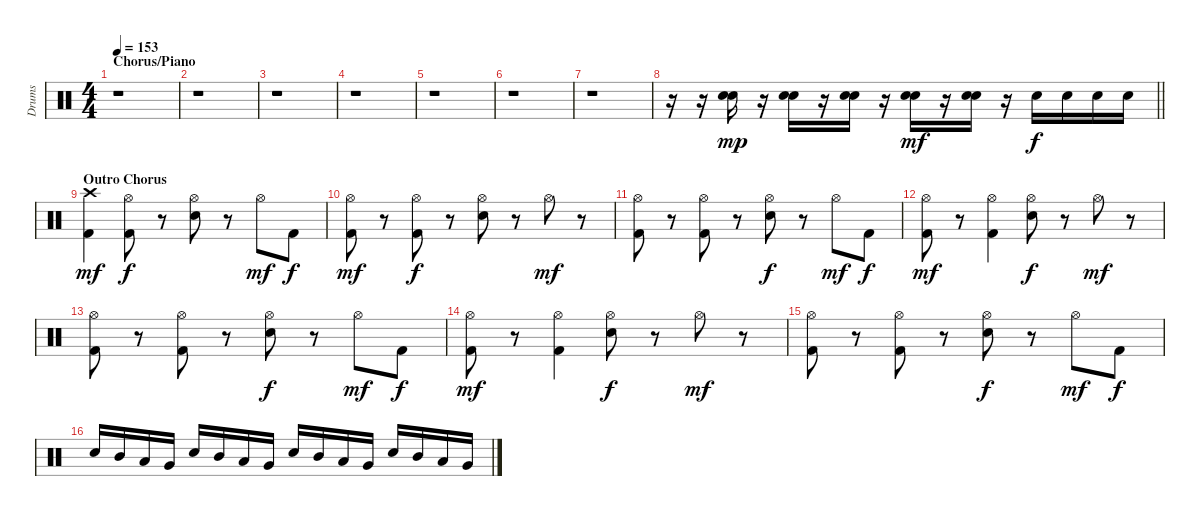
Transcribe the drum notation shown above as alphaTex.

\track ("Drums" "Drums") {instrument percussion}
\staff {score}
\articulation defaults
\ts (4 4)
\section ("" "Chorus/Piano")
\tempo 153
\clef neutral
\ks c
r.1{dy f} |
r.1 |
r.1 |
r.1 |
r.1 |
r.1 |
r.1 |
\barLineRight lightlight
r.16 r.16 ("Electric Snare (hit)" "Snare (hit) 2").16{dy mp} r.16 ("Electric Snare (hit)" "Snare (hit) 2").16 r.16 ("Electric Snare (hit)" "Snare (hit) 2").16 r.16 ("Electric Snare (hit)" "Snare (hit) 2").16{dy mf} r.16 ("Electric Snare (hit)" "Snare (hit) 2").16 r.16 "Electric Snare (hit)".16{dy f} "Electric Snare (hit)".16 "Electric Snare (hit)".16 "Electric Snare (hit)".16 |
\section ("" "Outro Chorus")
("Crash high (hit)" "Kick (hit) 2").4{dy mf} ("Hi-Hat (open)" "Kick (hit) 2").8{dy f} r.8 ("Hi-Hat (open)" "Electric Snare (hit)").8 r.8 "Hi-Hat (open)".8{dy mf} "Kick (hit) 2".8{dy f} |
("Hi-Hat (open)" "Kick (hit) 2").8{dy mf} r.8 ("Hi-Hat (open)" "Kick (hit) 2").8{dy f} r.8 ("Hi-Hat (open)" "Electric Snare (hit)").8 r.8 "Hi-Hat (open)".8{dy mf} r.8 |
("Hi-Hat (open)" "Kick (hit) 2").8 r.8 ("Hi-Hat (open)" "Kick (hit) 2").8 r.8 ("Hi-Hat (open)" "Electric Snare (hit)").8{dy f} r.8 "Hi-Hat (open)".8{dy mf} "Kick (hit) 2".8{dy f} |
("Hi-Hat (open)" "Kick (hit) 2").8{dy mf} r.8 ("Hi-Hat (open)" "Kick (hit) 2").4 ("Hi-Hat (open)" "Electric Snare (hit)").8{dy f} r.8 "Hi-Hat (open)".8{dy mf} r.8 |
("Hi-Hat (open)" "Kick (hit) 2").8 r.8 ("Hi-Hat (open)" "Kick (hit) 2").8 r.8 ("Hi-Hat (open)" "Electric Snare (hit)").8{dy f} r.8 "Hi-Hat (open)".8{dy mf} "Kick (hit) 2".8{dy f} |
("Hi-Hat (open)" "Kick (hit) 2").8{dy mf} r.8 ("Hi-Hat (open)" "Kick (hit) 2").4 ("Hi-Hat (open)" "Electric Snare (hit)").8{dy f} r.8 "Hi-Hat (open)".8{dy mf} r.8 |
("Hi-Hat (open)" "Kick (hit) 2").8 r.8 ("Hi-Hat (open)" "Kick (hit) 2").8 r.8 ("Hi-Hat (open)" "Electric Snare (hit)").8{dy f} r.8 "Hi-Hat (open)".8{dy mf} "Kick (hit) 2".8{dy f} |
"Electric Snare (hit)".16 "Mid Tom (hit)".16 "Low Tom (hit)".16 "Very Low Tom (hit)".16 "Electric Snare (hit)".16 "Mid Tom (hit)".16 "Low Tom (hit)".16 "Very Low Tom (hit)".16 "Electric Snare (hit)".16 "Mid Tom (hit)".16 "Low Tom (hit)".16 "Very Low Tom (hit)".16 "Electric Snare (hit)".16 "Mid Tom (hit)".16 "Low Tom (hit)".16 "Very Low Tom (hit)".16
